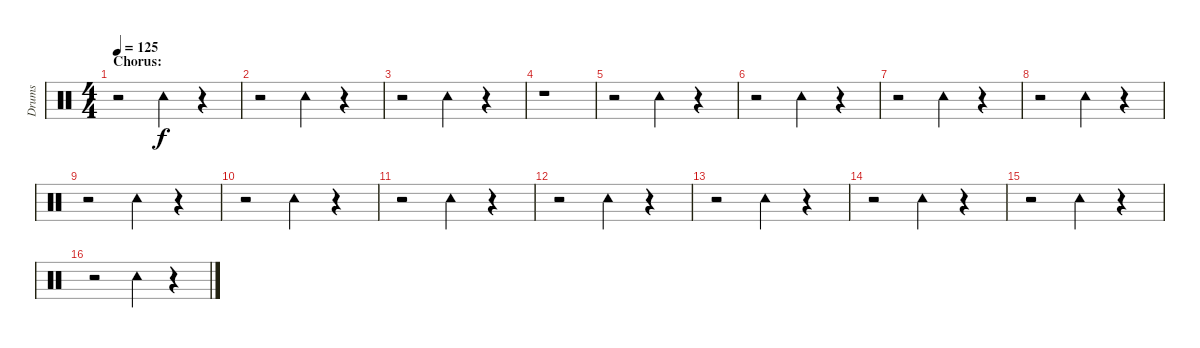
\track ("Drums" "Drums") {instrument percussion}
\staff {score}
\articulation defaults
\ts (4 4)
\section ("" "Chorus:")
\tempo 125
\clef neutral
\ks c
r.2{dy f} "Tambourine (hit)".4 r.4 |
r.2 "Tambourine (hit)".4 r.4 |
r.2 "Tambourine (hit)".4 r.4 |
r.1 |
r.2 "Tambourine (hit)".4 r.4 |
r.2 "Tambourine (hit)".4 r.4 |
r.2 "Tambourine (hit)".4 r.4 |
r.2 "Tambourine (hit)".4 r.4 |
r.2 "Tambourine (hit)".4 r.4 |
r.2 "Tambourine (hit)".4 r.4 |
r.2 "Tambourine (hit)".4 r.4 |
r.2 "Tambourine (hit)".4 r.4 |
r.2 "Tambourine (hit)".4 r.4 |
r.2 "Tambourine (hit)".4 r.4 |
r.2 "Tambourine (hit)".4 r.4 |
r.2 "Tambourine (hit)".4 r.4
